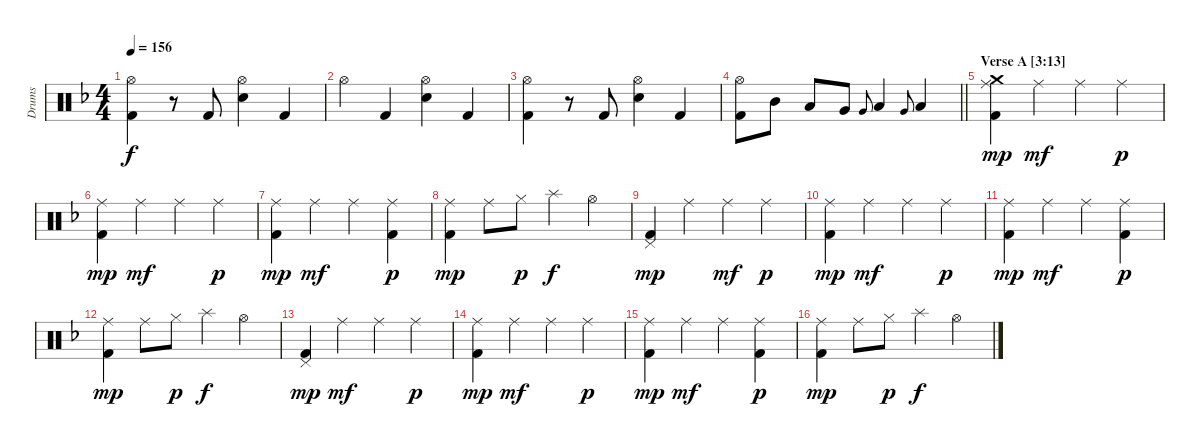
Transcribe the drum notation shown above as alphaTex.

\track ("Drums" "Drums") {instrument percussion}
\staff {score}
\articulation defaults
\ts (4 4)
\tempo 156
\clef neutral
\ks dminor
("Hi-Hat (open)" "Kick (hit) 2").4{dy f} r.8 "Kick (hit) 2".8 ("Hi-Hat (open)" "Snare (hit) 2").4 "Kick (hit) 2".4 |
"Hi-Hat (open)".4 "Kick (hit) 2".4 ("Hi-Hat (open)" "Snare (hit) 2").4 "Kick (hit) 2".4 |
("Hi-Hat (open)" "Kick (hit) 2").4 r.8 "Kick (hit) 2".8 ("Hi-Hat (open)" "Snare (hit) 2").4 "Kick (hit) 2".4 |
\barLineRight lightlight
("Hi-Hat (open)" "Kick (hit) 2").8 "Mid Tom (hit)".8 "Low Tom (hit)".8 "Very Low Tom (hit)".8 "Very Low Tom (hit)".8{gr onbeat} "Low Floor Tom (hit)".4 "Very Low Tom (hit)".8{gr onbeat} "Low Floor Tom (hit)".4 |
\section ("" "Verse A [3:13]")
("Crash medium (hit)" "Ride (middle)" "Kick (hit) 2").4{dy mp} "Ride (middle)".4{dy mf} "Ride (middle)".4 "Ride (middle)".4{dy p} |
("Ride (middle)" "Kick (hit) 2").4{dy mp} "Ride (middle)".4{dy mf} "Ride (middle)".4 "Ride (middle)".4{dy p} |
("Ride (middle)" "Kick (hit) 2").4{dy mp} "Ride (middle)".4{dy mf} "Ride (middle)".4 ("Ride (middle)" "Kick (hit) 2").4{dy p} |
("Ride (middle)" "Kick (hit) 2").4{dy mp} "Ride (middle)".8 "Hi-Hat (closed)".8{dy p} "Splash (hit)".4{dy f} "Hi-Hat (open)".4 |
("Pedal Hi-Hat (hit)" "Kick (hit) 2").4{dy mp} "Ride (middle)".4 "Ride (middle)".4{dy mf} "Ride (middle)".4{dy p} |
("Ride (middle)" "Kick (hit) 2").4{dy mp} "Ride (middle)".4{dy mf} "Ride (middle)".4 "Ride (middle)".4{dy p} |
("Ride (middle)" "Kick (hit) 2").4{dy mp} "Ride (middle)".4{dy mf} "Ride (middle)".4 ("Ride (middle)" "Kick (hit) 2").4{dy p} |
("Ride (middle)" "Kick (hit) 2").4{dy mp} "Ride (middle)".8 "Hi-Hat (closed)".8{dy p} "Splash (hit)".4{dy f} "Hi-Hat (open)".4 |
("Pedal Hi-Hat (hit)" "Kick (hit) 2").4{dy mp} "Ride (middle)".4{dy mf} "Ride (middle)".4 "Ride (middle)".4{dy p} |
("Ride (middle)" "Kick (hit) 2").4{dy mp} "Ride (middle)".4{dy mf} "Ride (middle)".4 "Ride (middle)".4{dy p} |
("Ride (middle)" "Kick (hit) 2").4{dy mp} "Ride (middle)".4{dy mf} "Ride (middle)".4 ("Ride (middle)" "Kick (hit) 2").4{dy p} |
("Ride (middle)" "Kick (hit) 2").4{dy mp} "Ride (middle)".8 "Hi-Hat (closed)".8{dy p} "Splash (hit)".4{dy f} "Hi-Hat (open)".4
